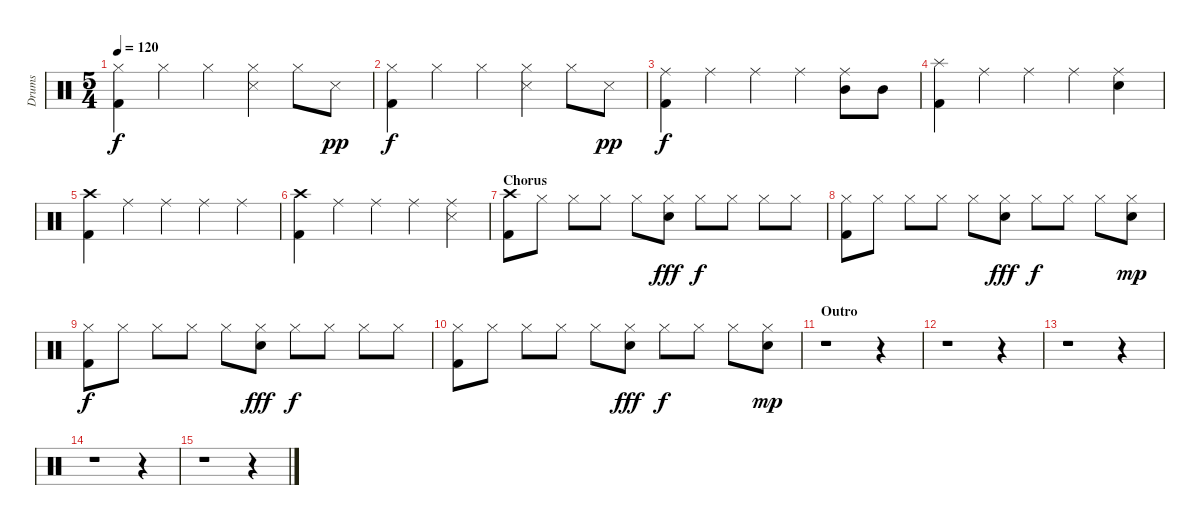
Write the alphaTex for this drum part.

\track ("Drums" "Drums") {instrument percussion}
\staff {score}
\articulation defaults
\ts (5 4)
\tempo 120
\clef neutral
\ks c
("Hi-Hat (closed)" "Kick (hit) 2").4{dy f} "Hi-Hat (closed)".4 "Hi-Hat (closed)".4 ("Hi-Hat (closed)" "Snare (side stick) 3").4 "Hi-Hat (closed)".8 "Snare (side stick) 3".8{dy pp} |
("Hi-Hat (closed)" "Kick (hit) 2").4{dy f} "Hi-Hat (closed)".4 "Hi-Hat (closed)".4 ("Hi-Hat (closed)" "Snare (side stick) 3").4 "Hi-Hat (closed)".8 "Snare (side stick) 3".8{dy pp} |
("Ride (middle)" "Kick (hit) 2").4{dy f} "Ride (middle)".4 "Ride (middle)".4 "Ride (middle)".4 ("Ride (middle)" "Mid Tom (hit)").8 "Mid Tom (hit)".8 |
("Splash (hit)" "Kick (hit) 2").4 "Ride (middle)".4 "Ride (middle)".4 "Ride (middle)".4 ("Ride (middle)" "Electric Snare (hit)").4 |
("Crash high (hit)" "Kick (hit) 2").4 "Ride (middle)".4 "Ride (middle)".4 "Ride (middle)".4 "Ride (middle)".4 |
("Crash high (hit)" "Kick (hit) 2").4 "Ride (middle)".4 "Ride (middle)".4 "Ride (middle)".4 ("Ride (middle)" "Snare (side stick) 3").4 |
\section ("" "Chorus")
("Crash high (hit)" "Kick (hit) 2").8 "Hi-Hat (closed)".8 "Hi-Hat (closed)".8 "Hi-Hat (closed)".8 "Hi-Hat (closed)".8 ("Hi-Hat (closed)" "Electric Snare (hit)").8{dy fff} "Hi-Hat (closed)".8{dy f} "Hi-Hat (closed)".8 "Hi-Hat (closed)".8 "Hi-Hat (closed)".8 |
("Hi-Hat (closed)" "Kick (hit) 2").8 "Hi-Hat (closed)".8 "Hi-Hat (closed)".8 "Hi-Hat (closed)".8 "Hi-Hat (closed)".8 ("Hi-Hat (closed)" "Electric Snare (hit)").8{dy fff} "Hi-Hat (closed)".8{dy f} "Hi-Hat (closed)".8 "Hi-Hat (closed)".8 ("Hi-Hat (closed)" "Electric Snare (hit)").8{dy mp} |
("Hi-Hat (closed)" "Kick (hit) 2").8{dy f} "Hi-Hat (closed)".8 "Hi-Hat (closed)".8 "Hi-Hat (closed)".8 "Hi-Hat (closed)".8 ("Hi-Hat (closed)" "Electric Snare (hit)").8{dy fff} "Hi-Hat (closed)".8{dy f} "Hi-Hat (closed)".8 "Hi-Hat (closed)".8 "Hi-Hat (closed)".8 |
("Hi-Hat (closed)" "Kick (hit) 2").8 "Hi-Hat (closed)".8 "Hi-Hat (closed)".8 "Hi-Hat (closed)".8 "Hi-Hat (closed)".8 ("Hi-Hat (closed)" "Electric Snare (hit)").8{dy fff} "Hi-Hat (closed)".8{dy f} "Hi-Hat (closed)".8 "Hi-Hat (closed)".8 ("Hi-Hat (closed)" "Electric Snare (hit)").8{dy mp} |
\section ("" "Outro")
r.1 r.4 |
r.1 r.4 |
r.1 r.4 |
r.1 r.4 |
r.1 r.4
